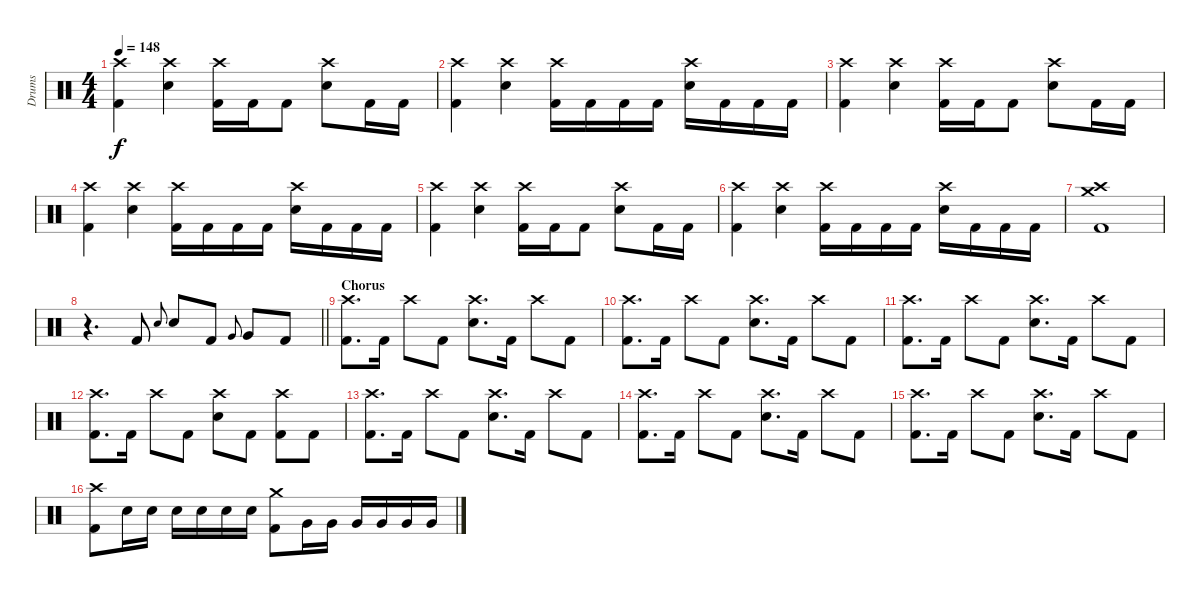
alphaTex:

\track ("Drums" "Drums") {instrument percussion}
\staff {score}
\articulation defaults
\ts (4 4)
\tempo 148
\clef neutral
\ks c
("Crash high (hit)" "Kick (hit) 2").4{dy f} ("Crash high (hit)" "Snare (hit) 2").4 ("Crash high (hit)" "Kick (hit) 2").16 "Kick (hit) 2".16 "Kick (hit) 2".8 ("Crash high (hit)" "Snare (hit) 2").8 "Kick (hit) 2".16 "Kick (hit) 2".16 |
("Crash high (hit)" "Kick (hit) 2").4 ("Crash high (hit)" "Snare (hit) 2").4 ("Crash high (hit)" "Kick (hit) 2").16 "Kick (hit) 2".16 "Kick (hit) 2".16 "Kick (hit) 2".16 ("Crash high (hit)" "Snare (hit) 2").16 "Kick (hit) 2".16 "Kick (hit) 2".16 "Kick (hit) 2".16 |
("Crash high (hit)" "Kick (hit) 2").4 ("Crash high (hit)" "Snare (hit) 2").4 ("Crash high (hit)" "Kick (hit) 2").16 "Kick (hit) 2".16 "Kick (hit) 2".8 ("Crash high (hit)" "Snare (hit) 2").8 "Kick (hit) 2".16 "Kick (hit) 2".16 |
("Crash high (hit)" "Kick (hit) 2").4 ("Crash high (hit)" "Snare (hit) 2").4 ("Crash high (hit)" "Kick (hit) 2").16 "Kick (hit) 2".16 "Kick (hit) 2".16 "Kick (hit) 2".16 ("Crash high (hit)" "Snare (hit) 2").16 "Kick (hit) 2".16 "Kick (hit) 2".16 "Kick (hit) 2".16 |
("Crash high (hit)" "Kick (hit) 2").4 ("Crash high (hit)" "Snare (hit) 2").4 ("Crash high (hit)" "Kick (hit) 2").16 "Kick (hit) 2".16 "Kick (hit) 2".8 ("Crash high (hit)" "Snare (hit) 2").8 "Kick (hit) 2".16 "Kick (hit) 2".16 |
("Crash high (hit)" "Kick (hit) 2").4 ("Crash high (hit)" "Snare (hit) 2").4 ("Crash high (hit)" "Kick (hit) 2").16 "Kick (hit) 2".16 "Kick (hit) 2".16 "Kick (hit) 2".16 ("Crash high (hit)" "Snare (hit) 2").16 "Kick (hit) 2".16 "Kick (hit) 2".16 "Kick (hit) 2".16 |
("Crash medium (hit)" "Crash high (hit)" "Kick (hit) 2").1 |
\barLineRight lightlight
r.4{d} "Kick (hit) 2".8 "Snare (hit) 2".8{gr onbeat} "Snare (hit) 2".8 "Kick (hit) 2".8 "Very Low Tom (hit)".8{gr onbeat} "Very Low Tom (hit)".8 "Kick (hit) 2".8 |
\section ("" "Chorus")
("Crash high (hit)" "Kick (hit) 2").8{d} "Kick (hit) 2".16 "Crash high (hit)".8 "Kick (hit) 2".8 ("Crash high (hit)" "Snare (hit) 2").8{d} "Kick (hit) 2".16 "Crash high (hit)".8 "Kick (hit) 2".8 |
("Crash high (hit)" "Kick (hit) 2").8{d} "Kick (hit) 2".16 "Crash high (hit)".8 "Kick (hit) 2".8 ("Crash high (hit)" "Snare (hit) 2").8{d} "Kick (hit) 2".16 "Crash high (hit)".8 "Kick (hit) 2".8 |
("Crash high (hit)" "Kick (hit) 2").8{d} "Kick (hit) 2".16 "Crash high (hit)".8 "Kick (hit) 2".8 ("Crash high (hit)" "Snare (hit) 2").8{d} "Kick (hit) 2".16 "Crash high (hit)".8 "Kick (hit) 2".8 |
("Crash high (hit)" "Kick (hit) 2").8{d} "Kick (hit) 2".16 "Crash high (hit)".8 "Kick (hit) 2".8 ("Crash high (hit)" "Snare (hit) 2").8 "Kick (hit) 2".8 ("Crash high (hit)" "Kick (hit) 2").8 "Kick (hit) 2".8 |
("Crash high (hit)" "Kick (hit) 2").8{d} "Kick (hit) 2".16 "Crash high (hit)".8 "Kick (hit) 2".8 ("Crash high (hit)" "Snare (hit) 2").8{d} "Kick (hit) 2".16 "Crash high (hit)".8 "Kick (hit) 2".8 |
("Crash high (hit)" "Kick (hit) 2").8{d} "Kick (hit) 2".16 "Crash high (hit)".8 "Kick (hit) 2".8 ("Crash high (hit)" "Snare (hit) 2").8{d} "Kick (hit) 2".16 "Crash high (hit)".8 "Kick (hit) 2".8 |
("Crash high (hit)" "Kick (hit) 2").8{d} "Kick (hit) 2".16 "Crash high (hit)".8 "Kick (hit) 2".8 ("Crash high (hit)" "Snare (hit) 2").8{d} "Kick (hit) 2".16 "Crash high (hit)".8 "Kick (hit) 2".8 |
("Crash high (hit)" "Kick (hit) 2").8 "Snare (hit) 2".16 "Snare (hit) 2".16 "Snare (hit) 2".16 "Snare (hit) 2".16 "Snare (hit) 2".16 "Snare (hit) 2".16 ("Crash medium (hit)" "Kick (hit) 2").8 "Very Low Tom (hit)".16 "Very Low Tom (hit)".16 "Very Low Tom (hit)".16 "Very Low Tom (hit)".16 "Very Low Tom (hit)".16 "Very Low Tom (hit)".16
